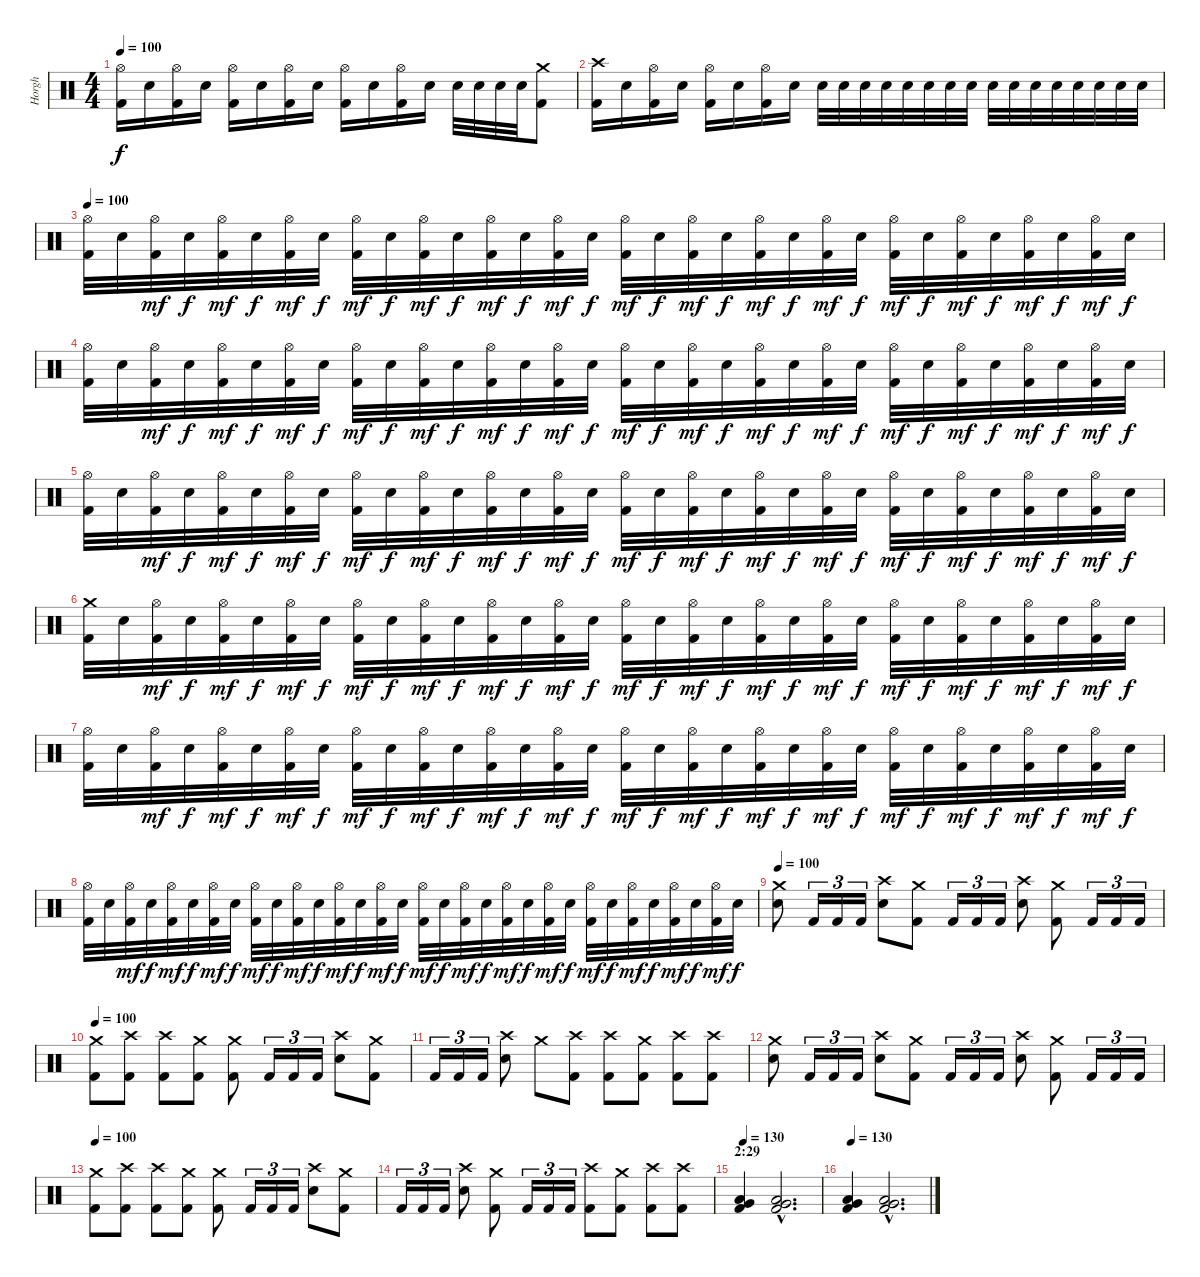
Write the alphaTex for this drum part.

\track ("Horgh" "Horgh") {instrument percussion}
\staff {score}
\articulation defaults
\ts (4 4)
\tempo 100
\clef neutral
\ks c
("Hi-Hat (open)" "Kick (hit) 2").16{dy f} "Electric Snare (hit)".16 ("Hi-Hat (open)" "Kick (hit) 2").16 "Electric Snare (hit)".16 ("Hi-Hat (open)" "Kick (hit) 2").16 "Electric Snare (hit)".16 ("Hi-Hat (open)" "Kick (hit) 2").16 "Electric Snare (hit)".16 ("Hi-Hat (open)" "Kick (hit) 2").16 "Electric Snare (hit)".16 ("Hi-Hat (open)" "Kick (hit) 2").16 "Electric Snare (hit)".16 "Electric Snare (hit)".32 "Electric Snare (hit)".32 "Electric Snare (hit)".32 "Electric Snare (hit)".32 ("Crash medium (hit)" "Kick (hit) 2").8 |
("Crash high (hit)" "Kick (hit) 2").16 "Electric Snare (hit)".16 ("Hi-Hat (open)" "Kick (hit) 2").16 "Electric Snare (hit)".16 ("Hi-Hat (open)" "Kick (hit) 2").16 "Electric Snare (hit)".16 ("Hi-Hat (open)" "Kick (hit) 2").16 "Electric Snare (hit)".16 "Electric Snare (hit)".32 "Electric Snare (hit)".32 "Electric Snare (hit)".32 "Electric Snare (hit)".32 "Electric Snare (hit)".32 "Electric Snare (hit)".32 "Electric Snare (hit)".32 "Electric Snare (hit)".32 "Electric Snare (hit)".32 "Electric Snare (hit)".32 "Electric Snare (hit)".32 "Electric Snare (hit)".32 "Electric Snare (hit)".32 "Electric Snare (hit)".32 "Electric Snare (hit)".32 "Electric Snare (hit)".32 |
\tempo 100
("Hi-Hat (open)" "Kick (hit) 2").32 "Electric Snare (hit)".32 ("Hi-Hat (open)" "Kick (hit) 2").32{dy mf} "Electric Snare (hit)".32{dy f} ("Hi-Hat (open)" "Kick (hit) 2").32{dy mf} "Electric Snare (hit)".32{dy f} ("Hi-Hat (open)" "Kick (hit) 2").32{dy mf} "Electric Snare (hit)".32{dy f} ("Hi-Hat (open)" "Kick (hit) 2").32{dy mf} "Electric Snare (hit)".32{dy f} ("Hi-Hat (open)" "Kick (hit) 2").32{dy mf} "Electric Snare (hit)".32{dy f} ("Hi-Hat (open)" "Kick (hit) 2").32{dy mf} "Electric Snare (hit)".32{dy f} ("Hi-Hat (open)" "Kick (hit) 2").32{dy mf} "Electric Snare (hit)".32{dy f} ("Hi-Hat (open)" "Kick (hit) 2").32{dy mf} "Electric Snare (hit)".32{dy f} ("Hi-Hat (open)" "Kick (hit) 2").32{dy mf} "Electric Snare (hit)".32{dy f} ("Hi-Hat (open)" "Kick (hit) 2").32{dy mf} "Electric Snare (hit)".32{dy f} ("Hi-Hat (open)" "Kick (hit) 2").32{dy mf} "Electric Snare (hit)".32{dy f} ("Hi-Hat (open)" "Kick (hit) 2").32{dy mf} "Electric Snare (hit)".32{dy f} ("Hi-Hat (open)" "Kick (hit) 2").32{dy mf} "Electric Snare (hit)".32{dy f} ("Hi-Hat (open)" "Kick (hit) 2").32{dy mf} "Electric Snare (hit)".32{dy f} ("Hi-Hat (open)" "Kick (hit) 2").32{dy mf} "Electric Snare (hit)".32{dy f} |
("Hi-Hat (open)" "Kick (hit) 2").32 "Electric Snare (hit)".32 ("Hi-Hat (open)" "Kick (hit) 2").32{dy mf} "Electric Snare (hit)".32{dy f} ("Hi-Hat (open)" "Kick (hit) 2").32{dy mf} "Electric Snare (hit)".32{dy f} ("Hi-Hat (open)" "Kick (hit) 2").32{dy mf} "Electric Snare (hit)".32{dy f} ("Hi-Hat (open)" "Kick (hit) 2").32{dy mf} "Electric Snare (hit)".32{dy f} ("Hi-Hat (open)" "Kick (hit) 2").32{dy mf} "Electric Snare (hit)".32{dy f} ("Hi-Hat (open)" "Kick (hit) 2").32{dy mf} "Electric Snare (hit)".32{dy f} ("Hi-Hat (open)" "Kick (hit) 2").32{dy mf} "Electric Snare (hit)".32{dy f} ("Hi-Hat (open)" "Kick (hit) 2").32{dy mf} "Electric Snare (hit)".32{dy f} ("Hi-Hat (open)" "Kick (hit) 2").32{dy mf} "Electric Snare (hit)".32{dy f} ("Hi-Hat (open)" "Kick (hit) 2").32{dy mf} "Electric Snare (hit)".32{dy f} ("Hi-Hat (open)" "Kick (hit) 2").32{dy mf} "Electric Snare (hit)".32{dy f} ("Hi-Hat (open)" "Kick (hit) 2").32{dy mf} "Electric Snare (hit)".32{dy f} ("Hi-Hat (open)" "Kick (hit) 2").32{dy mf} "Electric Snare (hit)".32{dy f} ("Hi-Hat (open)" "Kick (hit) 2").32{dy mf} "Electric Snare (hit)".32{dy f} ("Hi-Hat (open)" "Kick (hit) 2").32{dy mf} "Electric Snare (hit)".32{dy f} |
("Hi-Hat (open)" "Kick (hit) 2").32 "Electric Snare (hit)".32 ("Hi-Hat (open)" "Kick (hit) 2").32{dy mf} "Electric Snare (hit)".32{dy f} ("Hi-Hat (open)" "Kick (hit) 2").32{dy mf} "Electric Snare (hit)".32{dy f} ("Hi-Hat (open)" "Kick (hit) 2").32{dy mf} "Electric Snare (hit)".32{dy f} ("Hi-Hat (open)" "Kick (hit) 2").32{dy mf} "Electric Snare (hit)".32{dy f} ("Hi-Hat (open)" "Kick (hit) 2").32{dy mf} "Electric Snare (hit)".32{dy f} ("Hi-Hat (open)" "Kick (hit) 2").32{dy mf} "Electric Snare (hit)".32{dy f} ("Hi-Hat (open)" "Kick (hit) 2").32{dy mf} "Electric Snare (hit)".32{dy f} ("Hi-Hat (open)" "Kick (hit) 2").32{dy mf} "Electric Snare (hit)".32{dy f} ("Hi-Hat (open)" "Kick (hit) 2").32{dy mf} "Electric Snare (hit)".32{dy f} ("Hi-Hat (open)" "Kick (hit) 2").32{dy mf} "Electric Snare (hit)".32{dy f} ("Hi-Hat (open)" "Kick (hit) 2").32{dy mf} "Electric Snare (hit)".32{dy f} ("Hi-Hat (open)" "Kick (hit) 2").32{dy mf} "Electric Snare (hit)".32{dy f} ("Hi-Hat (open)" "Kick (hit) 2").32{dy mf} "Electric Snare (hit)".32{dy f} ("Hi-Hat (open)" "Kick (hit) 2").32{dy mf} "Electric Snare (hit)".32{dy f} ("Hi-Hat (open)" "Kick (hit) 2").32{dy mf} "Electric Snare (hit)".32{dy f} |
("Crash medium (hit)" "Kick (hit) 2").32 "Electric Snare (hit)".32 ("Hi-Hat (open)" "Kick (hit) 2").32{dy mf} "Electric Snare (hit)".32{dy f} ("Hi-Hat (open)" "Kick (hit) 2").32{dy mf} "Electric Snare (hit)".32{dy f} ("Hi-Hat (open)" "Kick (hit) 2").32{dy mf} "Electric Snare (hit)".32{dy f} ("Hi-Hat (open)" "Kick (hit) 2").32{dy mf} "Electric Snare (hit)".32{dy f} ("Hi-Hat (open)" "Kick (hit) 2").32{dy mf} "Electric Snare (hit)".32{dy f} ("Hi-Hat (open)" "Kick (hit) 2").32{dy mf} "Electric Snare (hit)".32{dy f} ("Hi-Hat (open)" "Kick (hit) 2").32{dy mf} "Electric Snare (hit)".32{dy f} ("Hi-Hat (open)" "Kick (hit) 2").32{dy mf} "Electric Snare (hit)".32{dy f} ("Hi-Hat (open)" "Kick (hit) 2").32{dy mf} "Electric Snare (hit)".32{dy f} ("Hi-Hat (open)" "Kick (hit) 2").32{dy mf} "Electric Snare (hit)".32{dy f} ("Hi-Hat (open)" "Kick (hit) 2").32{dy mf} "Electric Snare (hit)".32{dy f} ("Hi-Hat (open)" "Kick (hit) 2").32{dy mf} "Electric Snare (hit)".32{dy f} ("Hi-Hat (open)" "Kick (hit) 2").32{dy mf} "Electric Snare (hit)".32{dy f} ("Hi-Hat (open)" "Kick (hit) 2").32{dy mf} "Electric Snare (hit)".32{dy f} ("Hi-Hat (open)" "Kick (hit) 2").32{dy mf} "Electric Snare (hit)".32{dy f} |
("Hi-Hat (open)" "Kick (hit) 2").32 "Electric Snare (hit)".32 ("Hi-Hat (open)" "Kick (hit) 2").32{dy mf} "Electric Snare (hit)".32{dy f} ("Hi-Hat (open)" "Kick (hit) 2").32{dy mf} "Electric Snare (hit)".32{dy f} ("Hi-Hat (open)" "Kick (hit) 2").32{dy mf} "Electric Snare (hit)".32{dy f} ("Hi-Hat (open)" "Kick (hit) 2").32{dy mf} "Electric Snare (hit)".32{dy f} ("Hi-Hat (open)" "Kick (hit) 2").32{dy mf} "Electric Snare (hit)".32{dy f} ("Hi-Hat (open)" "Kick (hit) 2").32{dy mf} "Electric Snare (hit)".32{dy f} ("Hi-Hat (open)" "Kick (hit) 2").32{dy mf} "Electric Snare (hit)".32{dy f} ("Hi-Hat (open)" "Kick (hit) 2").32{dy mf} "Electric Snare (hit)".32{dy f} ("Hi-Hat (open)" "Kick (hit) 2").32{dy mf} "Electric Snare (hit)".32{dy f} ("Hi-Hat (open)" "Kick (hit) 2").32{dy mf} "Electric Snare (hit)".32{dy f} ("Hi-Hat (open)" "Kick (hit) 2").32{dy mf} "Electric Snare (hit)".32{dy f} ("Hi-Hat (open)" "Kick (hit) 2").32{dy mf} "Electric Snare (hit)".32{dy f} ("Hi-Hat (open)" "Kick (hit) 2").32{dy mf} "Electric Snare (hit)".32{dy f} ("Hi-Hat (open)" "Kick (hit) 2").32{dy mf} "Electric Snare (hit)".32{dy f} ("Hi-Hat (open)" "Kick (hit) 2").32{dy mf} "Electric Snare (hit)".32{dy f} |
("Hi-Hat (open)" "Kick (hit) 2").32 "Electric Snare (hit)".32 ("Hi-Hat (open)" "Kick (hit) 2").32{dy mf} "Electric Snare (hit)".32{dy f} ("Hi-Hat (open)" "Kick (hit) 2").32{dy mf} "Electric Snare (hit)".32{dy f} ("Hi-Hat (open)" "Kick (hit) 2").32{dy mf} "Electric Snare (hit)".32{dy f} ("Hi-Hat (open)" "Kick (hit) 2").32{dy mf} "Electric Snare (hit)".32{dy f} ("Hi-Hat (open)" "Kick (hit) 2").32{dy mf} "Electric Snare (hit)".32{dy f} ("Hi-Hat (open)" "Kick (hit) 2").32{dy mf} "Electric Snare (hit)".32{dy f} ("Hi-Hat (open)" "Kick (hit) 2").32{dy mf} "Electric Snare (hit)".32{dy f} ("Hi-Hat (open)" "Kick (hit) 2").32{dy mf} "Electric Snare (hit)".32{dy f} ("Hi-Hat (open)" "Kick (hit) 2").32{dy mf} "Electric Snare (hit)".32{dy f} ("Hi-Hat (open)" "Kick (hit) 2").32{dy mf} "Electric Snare (hit)".32{dy f} ("Hi-Hat (open)" "Kick (hit) 2").32{dy mf} "Electric Snare (hit)".32{dy f} ("Hi-Hat (open)" "Kick (hit) 2").32{dy mf} "Electric Snare (hit)".32{dy f} ("Hi-Hat (open)" "Kick (hit) 2").32{dy mf} "Electric Snare (hit)".32{dy f} ("Hi-Hat (open)" "Kick (hit) 2").32{dy mf} "Electric Snare (hit)".32{dy f} ("Hi-Hat (open)" "Kick (hit) 2").32{dy mf} "Electric Snare (hit)".32{dy f} |
\tempo 100
("Crash medium (hit)" "Electric Snare (hit)").8 "Kick (hit) 2".16{tu (3 2)} "Kick (hit) 2".16{tu (3 2)} "Kick (hit) 2".16{tu (3 2)} ("Crash high (hit)" "Electric Snare (hit)").8 ("Crash medium (hit)" "Kick (hit) 2").8 "Kick (hit) 2".16{tu (3 2)} "Kick (hit) 2".16{tu (3 2)} "Kick (hit) 2".16{tu (3 2)} ("Crash high (hit)" "Electric Snare (hit)").8 ("Crash medium (hit)" "Kick (hit) 2").8 "Kick (hit) 2".16{tu (3 2)} "Kick (hit) 2".16{tu (3 2)} "Kick (hit) 2".16{tu (3 2)} |
\tempo 100
("Crash medium (hit)" "Kick (hit) 2").8 ("Crash high (hit)" "Kick (hit) 2").8 ("Crash high (hit)" "Kick (hit) 2").8 ("Crash medium (hit)" "Kick (hit) 2").8 ("Crash medium (hit)" "Kick (hit) 2").8 "Kick (hit) 2".16{tu (3 2)} "Kick (hit) 2".16{tu (3 2)} "Kick (hit) 2".16{tu (3 2)} ("Crash high (hit)" "Electric Snare (hit)").8 ("Crash medium (hit)" "Kick (hit) 2").8 |
"Kick (hit) 2".16{tu (3 2)} "Kick (hit) 2".16{tu (3 2)} "Kick (hit) 2".16{tu (3 2)} ("Crash high (hit)" "Electric Snare (hit)").8 "Crash medium (hit)".8 ("Crash high (hit)" "Kick (hit) 2").8 ("Crash high (hit)" "Kick (hit) 2").8 ("Crash medium (hit)" "Kick (hit) 2").8 ("Crash high (hit)" "Kick (hit) 2").8 ("Crash high (hit)" "Kick (hit) 2").8 |
("Crash medium (hit)" "Electric Snare (hit)").8 "Kick (hit) 2".16{tu (3 2)} "Kick (hit) 2".16{tu (3 2)} "Kick (hit) 2".16{tu (3 2)} ("Crash high (hit)" "Electric Snare (hit)").8 ("Crash medium (hit)" "Kick (hit) 2").8 "Kick (hit) 2".16{tu (3 2)} "Kick (hit) 2".16{tu (3 2)} "Kick (hit) 2".16{tu (3 2)} ("Crash high (hit)" "Electric Snare (hit)").8 ("Crash medium (hit)" "Kick (hit) 2").8 "Kick (hit) 2".16{tu (3 2)} "Kick (hit) 2".16{tu (3 2)} "Kick (hit) 2".16{tu (3 2)} |
\tempo 100
("Crash medium (hit)" "Kick (hit) 2").8 ("Crash high (hit)" "Kick (hit) 2").8 ("Crash high (hit)" "Kick (hit) 2").8 ("Crash medium (hit)" "Kick (hit) 2").8 ("Crash medium (hit)" "Kick (hit) 2").8 "Kick (hit) 2".16{tu (3 2)} "Kick (hit) 2".16{tu (3 2)} "Kick (hit) 2".16{tu (3 2)} ("Crash high (hit)" "Electric Snare (hit)").8 ("Crash medium (hit)" "Kick (hit) 2").8 |
"Kick (hit) 2".16{tu (3 2)} "Kick (hit) 2".16{tu (3 2)} "Kick (hit) 2".16{tu (3 2)} ("Crash high (hit)" "Electric Snare (hit)").8 ("Crash medium (hit)" "Kick (hit) 2").8 "Kick (hit) 2".16{tu (3 2)} "Kick (hit) 2".16{tu (3 2)} "Kick (hit) 2".16{tu (3 2)} ("Crash high (hit)" "Kick (hit) 2").8 ("Crash medium (hit)" "Kick (hit) 2").8 ("Crash high (hit)" "Kick (hit) 2").8 ("Crash high (hit)" "Kick (hit) 2").8 |
\section ("" "2:29")
\tempo 130
("Very Low Tom (hit)" "Low Floor Tom (hit)" "Kick (hit) 2").4 ("Very Low Tom (hit)"{hac} "Low Floor Tom (hit)"{hac} "Kick (hit) 2"{hac}).2{d} |
\tempo 130
("Very Low Tom (hit)" "Low Floor Tom (hit)" "Kick (hit) 2").4 ("Very Low Tom (hit)"{hac} "Low Floor Tom (hit)"{hac} "Kick (hit) 2"{hac}).2{d}
